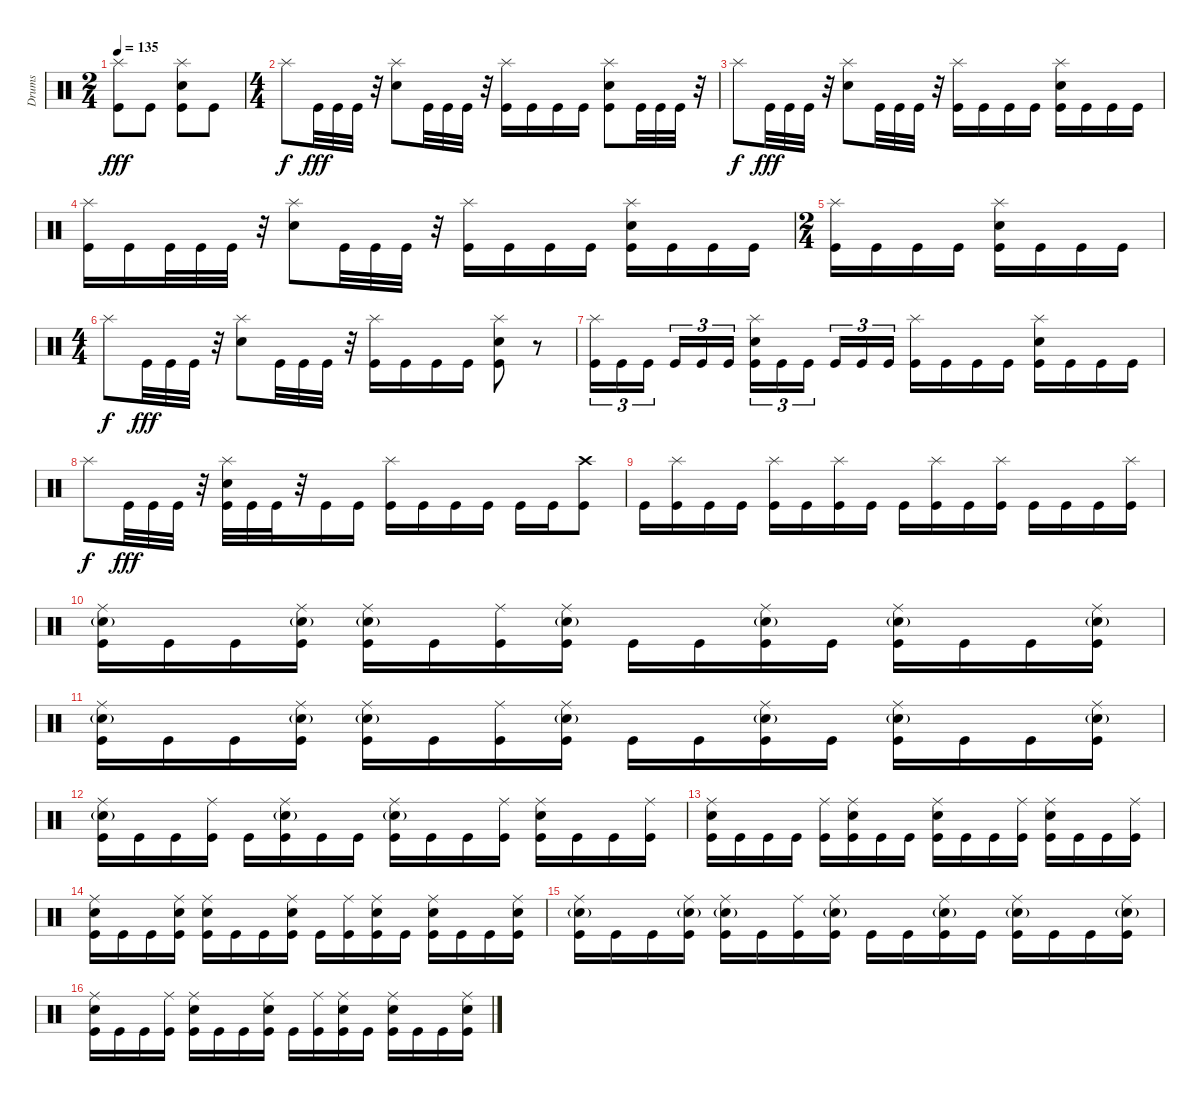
\track ("Drums" "Drums") {instrument percussion}
\staff {score}
\articulation defaults
\ts (2 4)
\tempo 135
\clef neutral
\ks c
("Splash (hit)" "Kick (hit)").8{dy fff} "Kick (hit)".8 ("Splash (hit)" "Electric Snare (hit)" "Kick (hit)").8 "Kick (hit)".8 |
\ts (4 4)
"Splash (hit)".8{dy f} "Kick (hit)".32{dy fff} "Kick (hit)".32 "Kick (hit)".32 r.32 ("Splash (hit)" "Electric Snare (hit)").8 "Kick (hit)".32 "Kick (hit)".32 "Kick (hit)".32 r.32 ("Splash (hit)" "Kick (hit)").16 "Kick (hit)".16 "Kick (hit)".16 "Kick (hit)".16 ("Splash (hit)" "Electric Snare (hit)" "Kick (hit)").8 "Kick (hit)".32 "Kick (hit)".32 "Kick (hit)".32 r.32 |
"Splash (hit)".8{dy f} "Kick (hit)".32{dy fff} "Kick (hit)".32 "Kick (hit)".32 r.32 ("Splash (hit)" "Electric Snare (hit)").8 "Kick (hit)".32 "Kick (hit)".32 "Kick (hit)".32 r.32 ("Splash (hit)" "Kick (hit)").16 "Kick (hit)".16 "Kick (hit)".16 "Kick (hit)".16 ("Splash (hit)" "Electric Snare (hit)" "Kick (hit)").16 "Kick (hit)".16 "Kick (hit)".16 "Kick (hit)".16 |
("Splash (hit)" "Kick (hit)").16 "Kick (hit)".16 "Kick (hit)".32 "Kick (hit)".32 "Kick (hit)".32 r.32 ("Splash (hit)" "Electric Snare (hit)").8 "Kick (hit)".32 "Kick (hit)".32 "Kick (hit)".32 r.32 ("Splash (hit)" "Kick (hit)").16 "Kick (hit)".16 "Kick (hit)".16 "Kick (hit)".16 ("Splash (hit)" "Electric Snare (hit)" "Kick (hit)").16 "Kick (hit)".16 "Kick (hit)".16 "Kick (hit)".16 |
\ts (2 4)
("Splash (hit)" "Kick (hit)").16 "Kick (hit)".16 "Kick (hit)".16 "Kick (hit)".16 ("Splash (hit)" "Electric Snare (hit)" "Kick (hit)").16 "Kick (hit)".16 "Kick (hit)".16 "Kick (hit)".16 |
\ts (4 4)
"Splash (hit)".8{dy f} "Kick (hit)".32{dy fff} "Kick (hit)".32 "Kick (hit)".32 r.32 ("Splash (hit)" "Electric Snare (hit)").8 "Kick (hit)".32 "Kick (hit)".32 "Kick (hit)".32 r.32 ("Splash (hit)" "Kick (hit)").16 "Kick (hit)".16 "Kick (hit)".16 "Kick (hit)".16 ("Splash (hit)" "Electric Snare (hit)" "Kick (hit)").8 r.8 |
("Splash (hit)" "Kick (hit)").16{tu (3 2)} "Kick (hit)".16{tu (3 2)} "Kick (hit)".16{tu (3 2) beam splitsecondary} "Kick (hit)".16{tu (3 2)} "Kick (hit)".16{tu (3 2)} "Kick (hit)".16{tu (3 2)} ("Splash (hit)" "Electric Snare (hit)" "Kick (hit)").16{tu (3 2)} "Kick (hit)".16{tu (3 2)} "Kick (hit)".16{tu (3 2) beam splitsecondary} "Kick (hit)".16{tu (3 2)} "Kick (hit)".16{tu (3 2)} "Kick (hit)".16{tu (3 2)} ("Splash (hit)" "Kick (hit)").16 "Kick (hit)".16 "Kick (hit)".16 "Kick (hit)".16 ("Splash (hit)" "Electric Snare (hit)" "Kick (hit)").16 "Kick (hit)".16 "Kick (hit)".16 "Kick (hit)".16 |
"Splash (hit)".8{dy f} "Kick (hit)".32{dy fff} "Kick (hit)".32 "Kick (hit)".32 r.32 ("Splash (hit)" "Electric Snare (hit)" "Kick (hit)").32 "Kick (hit)".32 "Kick (hit)".32 r.32 "Kick (hit)".16 "Kick (hit)".16 ("Splash (hit)" "Kick (hit)").16 "Kick (hit)".16 "Kick (hit)".16 "Kick (hit)".16 "Kick (hit)".16 "Kick (hit)".16 ("Crash high (hit)" "Kick (hit)").8 |
"Kick (hit)".16 ("Splash (hit)" "Kick (hit)").16 "Kick (hit)".16 "Kick (hit)".16 ("Splash (hit)" "Kick (hit)").16 "Kick (hit)".16 ("Splash (hit)" "Kick (hit)").16 "Kick (hit)".16 "Kick (hit)".16 ("Splash (hit)" "Kick (hit)").16 "Kick (hit)".16 ("Splash (hit)" "Kick (hit)").16 "Kick (hit)".16 "Kick (hit)".16 "Kick (hit)".16 ("Splash (hit)" "Kick (hit)").16 |
("Ride (middle)" "Electric Snare (hit)"{g} "Kick (hit)").16 "Kick (hit)".16 "Kick (hit)".16 ("Ride (middle)" "Electric Snare (hit)"{g} "Kick (hit)").16 ("Ride (middle)" "Electric Snare (hit)"{g} "Kick (hit)").16 "Kick (hit)".16 ("Ride (middle)" "Kick (hit)").16 ("Ride (middle)" "Electric Snare (hit)"{g} "Kick (hit)").16 "Kick (hit)".16 "Kick (hit)".16 ("Ride (middle)" "Electric Snare (hit)"{g} "Kick (hit)").16 "Kick (hit)".16 ("Ride (middle)" "Electric Snare (hit)"{g} "Kick (hit)").16 "Kick (hit)".16 "Kick (hit)".16 ("Ride (middle)" "Electric Snare (hit)"{g} "Kick (hit)").16 |
("Ride (middle)" "Electric Snare (hit)"{g} "Kick (hit)").16 "Kick (hit)".16 "Kick (hit)".16 ("Ride (middle)" "Electric Snare (hit)"{g} "Kick (hit)").16 ("Ride (middle)" "Electric Snare (hit)"{g} "Kick (hit)").16 "Kick (hit)".16 ("Ride (middle)" "Kick (hit)").16 ("Ride (middle)" "Electric Snare (hit)"{g} "Kick (hit)").16 "Kick (hit)".16 "Kick (hit)".16 ("Ride (middle)" "Electric Snare (hit)"{g} "Kick (hit)").16 "Kick (hit)".16 ("Ride (middle)" "Electric Snare (hit)"{g} "Kick (hit)").16 "Kick (hit)".16 "Kick (hit)".16 ("Ride (middle)" "Electric Snare (hit)"{g} "Kick (hit)").16 |
("Ride (middle)" "Electric Snare (hit)"{g} "Kick (hit)").16 "Kick (hit)".16 "Kick (hit)".16 ("Ride (middle)" "Kick (hit)").16 "Kick (hit)".16 ("Ride (middle)" "Electric Snare (hit)"{g} "Kick (hit)").16 "Kick (hit)".16 "Kick (hit)".16 ("Ride (middle)" "Electric Snare (hit)"{g} "Kick (hit)").16 "Kick (hit)".16 "Kick (hit)".16 ("Ride (middle)" "Kick (hit)").16 ("Ride (middle)" "Electric Snare (hit)" "Kick (hit)").16 "Kick (hit)".16 "Kick (hit)".16 ("Ride (middle)" "Kick (hit)").16 |
("Ride (middle)" "Electric Snare (hit)" "Kick (hit)").16 "Kick (hit)".16 "Kick (hit)".16 "Kick (hit)".16 ("Ride (middle)" "Kick (hit)").16 ("Ride (middle)" "Electric Snare (hit)" "Kick (hit)").16 "Kick (hit)".16 "Kick (hit)".16 ("Ride (middle)" "Electric Snare (hit)" "Kick (hit)").16 "Kick (hit)".16 "Kick (hit)".16 ("Ride (middle)" "Kick (hit)").16 ("Ride (middle)" "Electric Snare (hit)" "Kick (hit)").16 "Kick (hit)".16 "Kick (hit)".16 ("Ride (middle)" "Kick (hit)").16 |
("Ride (middle)" "Electric Snare (hit)" "Kick (hit)").16 "Kick (hit)".16 "Kick (hit)".16 ("Ride (middle)" "Electric Snare (hit)" "Kick (hit)").16 ("Ride (middle)" "Electric Snare (hit)" "Kick (hit)").16 "Kick (hit)".16 "Kick (hit)".16 ("Ride (middle)" "Electric Snare (hit)" "Kick (hit)").16 "Kick (hit)".16 ("Ride (middle)" "Kick (hit)").16 ("Ride (middle)" "Electric Snare (hit)" "Kick (hit)").16 "Kick (hit)".16 ("Ride (middle)" "Electric Snare (hit)" "Kick (hit)").16 "Kick (hit)".16 "Kick (hit)".16 ("Ride (middle)" "Electric Snare (hit)" "Kick (hit)").16 |
("Ride (middle)" "Electric Snare (hit)"{g} "Kick (hit)").16 "Kick (hit)".16 "Kick (hit)".16 ("Ride (middle)" "Electric Snare (hit)"{g} "Kick (hit)").16 ("Ride (middle)" "Electric Snare (hit)"{g} "Kick (hit)").16 "Kick (hit)".16 ("Ride (middle)" "Kick (hit)").16 ("Ride (middle)" "Electric Snare (hit)"{g} "Kick (hit)").16 "Kick (hit)".16 "Kick (hit)".16 ("Ride (middle)" "Electric Snare (hit)"{g} "Kick (hit)").16 "Kick (hit)".16 ("Ride (middle)" "Electric Snare (hit)"{g} "Kick (hit)").16 "Kick (hit)".16 "Kick (hit)".16 ("Ride (middle)" "Electric Snare (hit)"{g} "Kick (hit)").16 |
("Ride (middle)" "Electric Snare (hit)" "Kick (hit)").16 "Kick (hit)".16 "Kick (hit)".16 ("Ride (middle)" "Kick (hit)").16 ("Ride (middle)" "Electric Snare (hit)" "Kick (hit)").16 "Kick (hit)".16 "Kick (hit)".16 ("Ride (middle)" "Electric Snare (hit)" "Kick (hit)").16 "Kick (hit)".16 ("Ride (middle)" "Kick (hit)").16 ("Ride (middle)" "Electric Snare (hit)" "Kick (hit)").16 "Kick (hit)".16 ("Ride (middle)" "Electric Snare (hit)" "Kick (hit)").16 "Kick (hit)".16 "Kick (hit)".16 ("Ride (middle)" "Electric Snare (hit)" "Kick (hit)").16
